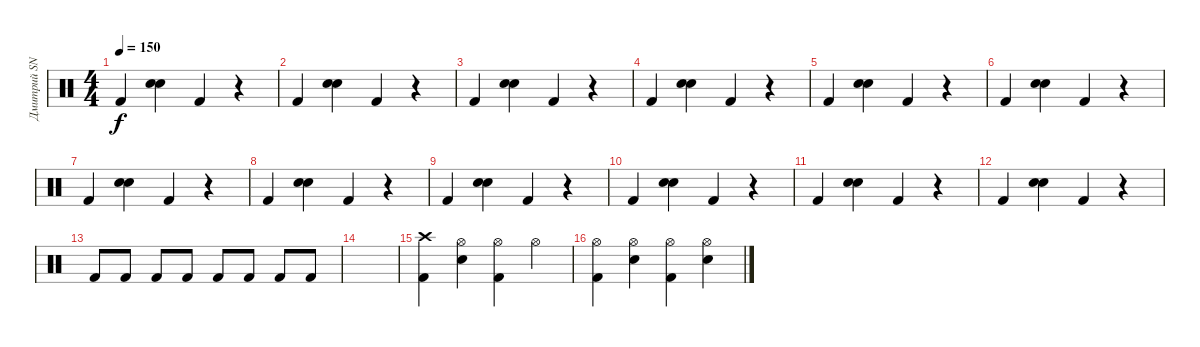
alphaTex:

\track ("Дмитрий SNAKE Хакимов" "Дмитрий SN") {instrument percussion}
\staff {score}
\articulation defaults
\ts (4 4)
\tempo 150
\clef neutral
\ks c "Kick (hit) 2".4{dy f}
("Snare (hit) 2" "Hand Clap (hit)").4 "Kick (hit) 2".4 r.4 |
"Kick (hit) 2".4 ("Snare (hit) 2" "Hand Clap (hit)").4 "Kick (hit) 2".4 r.4 |
"Kick (hit) 2".4 ("Snare (hit) 2" "Hand Clap (hit)").4 "Kick (hit) 2".4 r.4 |
"Kick (hit) 2".4 ("Snare (hit) 2" "Hand Clap (hit)").4 "Kick (hit) 2".4 r.4 |
"Kick (hit) 2".4 ("Snare (hit) 2" "Hand Clap (hit)").4 "Kick (hit) 2".4 r.4 |
"Kick (hit) 2".4 ("Snare (hit) 2" "Hand Clap (hit)").4 "Kick (hit) 2".4 r.4 |
"Kick (hit) 2".4 ("Snare (hit) 2" "Hand Clap (hit)").4 "Kick (hit) 2".4 r.4 |
"Kick (hit) 2".4 ("Snare (hit) 2" "Hand Clap (hit)").4 "Kick (hit) 2".4 r.4 |
"Kick (hit) 2".4 ("Snare (hit) 2" "Hand Clap (hit)").4 "Kick (hit) 2".4 r.4 |
"Kick (hit) 2".4 ("Snare (hit) 2" "Hand Clap (hit)").4 "Kick (hit) 2".4 r.4 |
"Kick (hit) 2".4 ("Snare (hit) 2" "Hand Clap (hit)").4 "Kick (hit) 2".4 r.4 |
"Kick (hit) 2".4 ("Snare (hit) 2" "Hand Clap (hit)").4 "Kick (hit) 2".4 r.4 |
"Kick (hit) 2".8 "Kick (hit) 2".8 "Kick (hit) 2".8 "Kick (hit) 2".8 "Kick (hit) 2".8 "Kick (hit) 2".8 "Kick (hit) 2".8 "Kick (hit) 2".8 |
|
("Crash high (hit)" "Kick (hit) 2").4 ("Hi-Hat (open)" "Snare (hit) 2").4 ("Hi-Hat (open)" "Kick (hit) 2").4 "Hi-Hat (open)".4 |
("Hi-Hat (open)" "Kick (hit) 2").4 ("Hi-Hat (open)" "Snare (hit) 2").4 ("Hi-Hat (open)" "Kick (hit) 2").4 ("Hi-Hat (open)" "Snare (hit) 2").4
